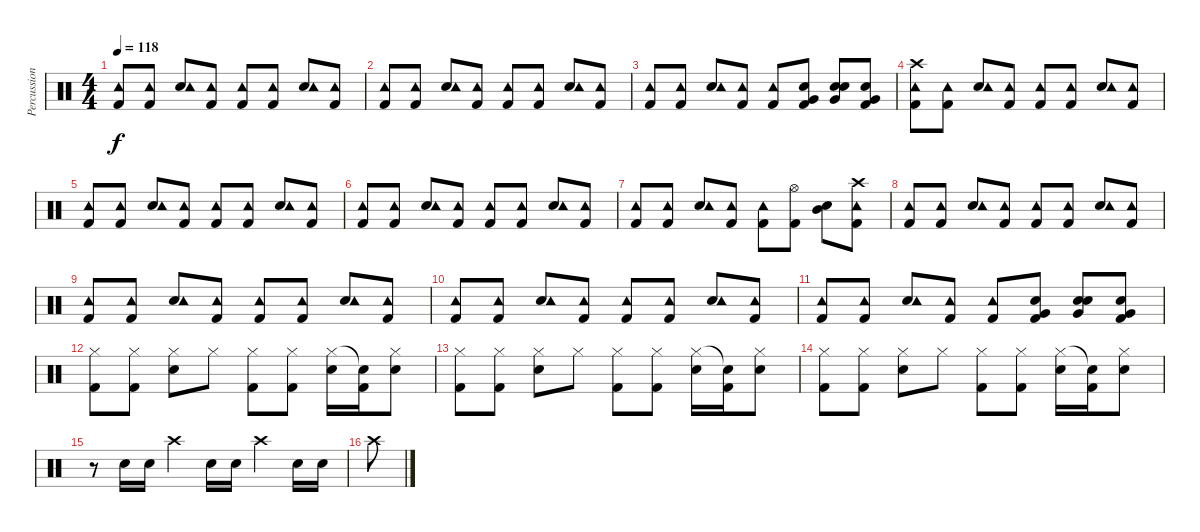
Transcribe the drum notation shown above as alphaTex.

\track ("Percussion" "Percussion") {instrument percussion}
\staff {score}
\articulation defaults
\ts (4 4)
\tempo 118
\clef neutral
\ks c
("Kick (hit) 2" "Tambourine (hit)").8{dy f} ("Kick (hit) 2" "Tambourine (hit)").8 ("Snare (hit) 2" "Tambourine (hit)").8 ("Kick (hit) 2" "Tambourine (hit)").8 ("Kick (hit) 2" "Tambourine (hit)").8 ("Kick (hit) 2" "Tambourine (hit)").8 ("Snare (hit) 2" "Tambourine (hit)").8 ("Kick (hit) 2" "Tambourine (hit)").8 |
("Kick (hit) 2" "Tambourine (hit)").8 ("Kick (hit) 2" "Tambourine (hit)").8 ("Snare (hit) 2" "Tambourine (hit)").8 ("Kick (hit) 2" "Tambourine (hit)").8 ("Kick (hit) 2" "Tambourine (hit)").8 ("Kick (hit) 2" "Tambourine (hit)").8 ("Snare (hit) 2" "Tambourine (hit)").8 ("Kick (hit) 2" "Tambourine (hit)").8 |
("Kick (hit) 2" "Tambourine (hit)").8 ("Kick (hit) 2" "Tambourine (hit)").8 ("Snare (hit) 2" "Tambourine (hit)").8 ("Kick (hit) 2" "Tambourine (hit)").8 ("Kick (hit) 2" "Tambourine (hit)").8 ("Snare (hit) 2" "Very Low Tom (hit)" "Kick (hit) 2").8 ("Snare (hit) 2" "Very Low Tom (hit)" "Snare (hit) 2").8 ("Snare (hit) 2" "Very Low Tom (hit)" "Kick (hit) 2").8 |
("Crash high (hit)" "Kick (hit) 2" "Tambourine (hit)").8 ("Kick (hit) 2" "Tambourine (hit)").8 ("Snare (hit) 2" "Tambourine (hit)").8 ("Kick (hit) 2" "Tambourine (hit)").8 ("Kick (hit) 2" "Tambourine (hit)").8 ("Kick (hit) 2" "Tambourine (hit)").8 ("Snare (hit) 2" "Tambourine (hit)").8 ("Kick (hit) 2" "Tambourine (hit)").8 |
("Kick (hit) 2" "Tambourine (hit)").8 ("Kick (hit) 2" "Tambourine (hit)").8 ("Snare (hit) 2" "Tambourine (hit)").8 ("Kick (hit) 2" "Tambourine (hit)").8 ("Kick (hit) 2" "Tambourine (hit)").8 ("Kick (hit) 2" "Tambourine (hit)").8 ("Snare (hit) 2" "Tambourine (hit)").8 ("Kick (hit) 2" "Tambourine (hit)").8 |
("Kick (hit) 2" "Tambourine (hit)").8 ("Kick (hit) 2" "Tambourine (hit)").8 ("Snare (hit) 2" "Tambourine (hit)").8 ("Kick (hit) 2" "Tambourine (hit)").8 ("Kick (hit) 2" "Tambourine (hit)").8 ("Kick (hit) 2" "Tambourine (hit)").8 ("Snare (hit) 2" "Tambourine (hit)").8 ("Kick (hit) 2" "Tambourine (hit)").8 |
("Kick (hit) 2" "Tambourine (hit)").8 ("Kick (hit) 2" "Tambourine (hit)").8 ("Snare (hit) 2" "Tambourine (hit)").8 ("Kick (hit) 2" "Tambourine (hit)").8 ("Kick (hit) 2" "Tambourine (hit)").8 ("Kick (hit) 2" "Hi-Hat (open)").8 ("Mid Tom (hit)" "Snare (hit) 2").8 ("Crash high (hit)" "Kick (hit) 2" "Tambourine (hit)").8 |
("Kick (hit) 2" "Tambourine (hit)").8 ("Kick (hit) 2" "Tambourine (hit)").8 ("Snare (hit) 2" "Tambourine (hit)").8 ("Kick (hit) 2" "Tambourine (hit)").8 ("Kick (hit) 2" "Tambourine (hit)").8 ("Kick (hit) 2" "Tambourine (hit)").8 ("Snare (hit) 2" "Tambourine (hit)").8 ("Kick (hit) 2" "Tambourine (hit)").8 |
("Kick (hit) 2" "Tambourine (hit)").8 ("Kick (hit) 2" "Tambourine (hit)").8 ("Snare (hit) 2" "Tambourine (hit)").8 ("Kick (hit) 2" "Tambourine (hit)").8 ("Kick (hit) 2" "Tambourine (hit)").8 ("Kick (hit) 2" "Tambourine (hit)").8 ("Snare (hit) 2" "Tambourine (hit)").8 ("Kick (hit) 2" "Tambourine (hit)").8 |
("Kick (hit) 2" "Tambourine (hit)").8 ("Kick (hit) 2" "Tambourine (hit)").8 ("Snare (hit) 2" "Tambourine (hit)").8 ("Kick (hit) 2" "Tambourine (hit)").8 ("Kick (hit) 2" "Tambourine (hit)").8 ("Kick (hit) 2" "Tambourine (hit)").8 ("Snare (hit) 2" "Tambourine (hit)").8 ("Kick (hit) 2" "Tambourine (hit)").8 |
("Kick (hit) 2" "Tambourine (hit)").8 ("Kick (hit) 2" "Tambourine (hit)").8 ("Snare (hit) 2" "Tambourine (hit)").8 ("Kick (hit) 2" "Tambourine (hit)").8 ("Kick (hit) 2" "Tambourine (hit)").8 ("Snare (hit) 2" "Very Low Tom (hit)" "Kick (hit) 2").8 ("Snare (hit) 2" "Very Low Tom (hit)" "Snare (hit) 2").8 ("Snare (hit) 2" "Very Low Tom (hit)" "Kick (hit) 2").8 |
("Kick (hit) 2" "Hi-Hat (closed)").8 ("Kick (hit) 2" "Hi-Hat (closed)").8 ("Snare (hit) 2" "Hi-Hat (closed)").8 "Hi-Hat (closed)".8 ("Kick (hit) 2" "Hi-Hat (closed)").8 ("Kick (hit) 2" "Hi-Hat (closed)").8 ("Snare (hit) 2" "Hi-Hat (closed)").16 ("Kick (hit) 2" "Snare (hit)"{t}).16 ("Snare (hit) 2" "Hi-Hat (closed)").8 |
("Kick (hit) 2" "Hi-Hat (closed)").8 ("Kick (hit) 2" "Hi-Hat (closed)").8 ("Snare (hit) 2" "Hi-Hat (closed)").8 "Hi-Hat (closed)".8 ("Kick (hit) 2" "Hi-Hat (closed)").8 ("Kick (hit) 2" "Hi-Hat (closed)").8 ("Snare (hit) 2" "Hi-Hat (closed)").16 ("Kick (hit) 2" "Snare (hit)"{t}).16 ("Snare (hit) 2" "Hi-Hat (closed)").8 |
("Kick (hit) 2" "Hi-Hat (closed)").8 ("Kick (hit) 2" "Hi-Hat (closed)").8 ("Snare (hit) 2" "Hi-Hat (closed)").8 "Hi-Hat (closed)".8 ("Kick (hit) 2" "Hi-Hat (closed)").8 ("Kick (hit) 2" "Hi-Hat (closed)").8 ("Snare (hit) 2" "Hi-Hat (closed)").16 ("Kick (hit) 2" "Snare (hit)"{t}).16 ("Snare (hit) 2" "Hi-Hat (closed)").8 |
r.8 "Snare (hit) 2".16 "Snare (hit) 2".16 "Crash high (hit)".4 "Snare (hit) 2".16 "Snare (hit) 2".16 "Crash high (hit)".4 "Snare (hit) 2".16 "Snare (hit) 2".16 |
"Crash high (hit)".8
